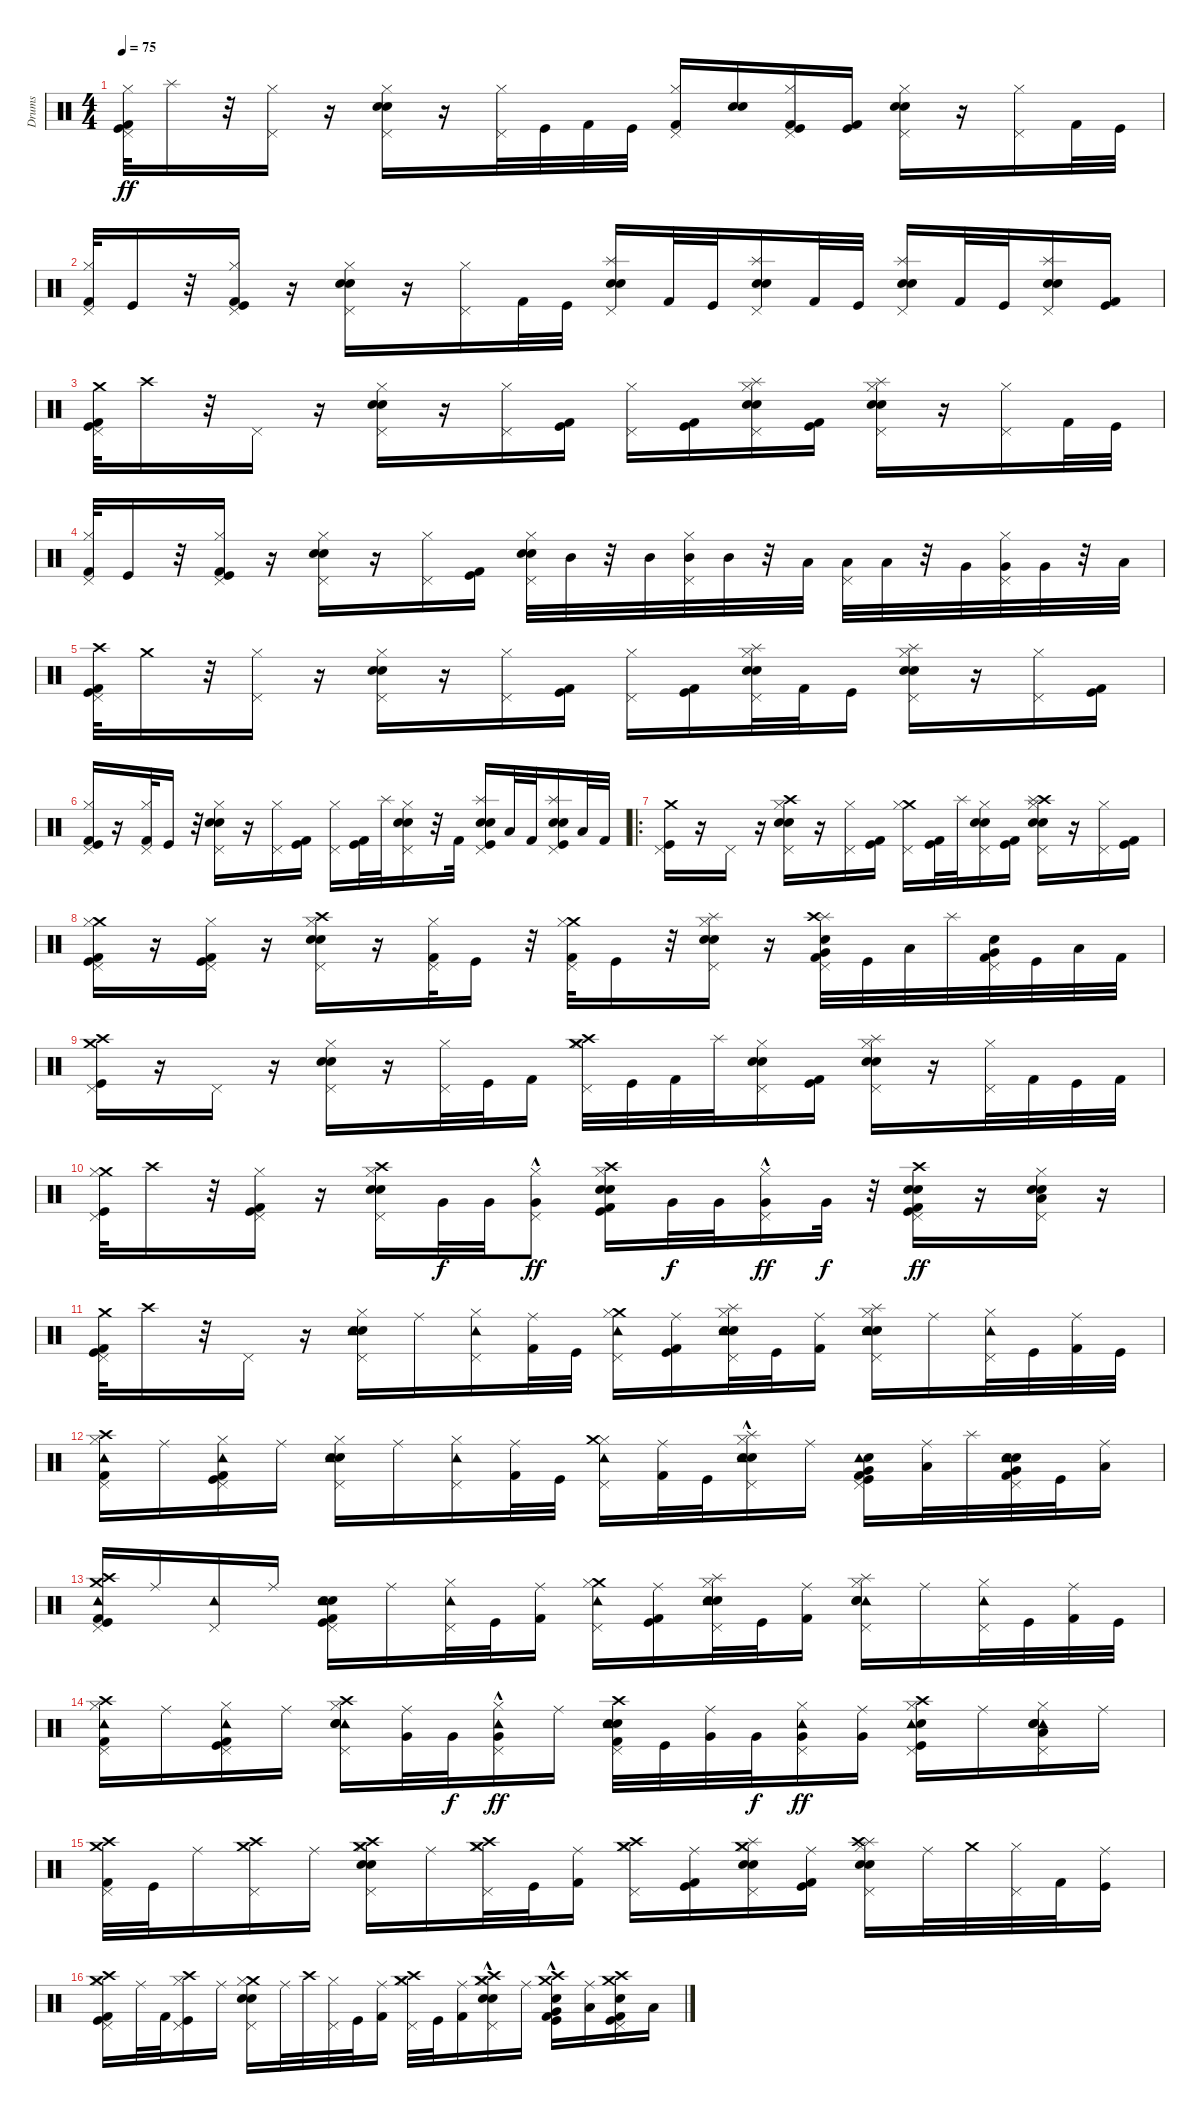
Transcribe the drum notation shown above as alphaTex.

\track ("Drums" "Drums") {instrument percussion}
\staff {score}
\articulation defaults
\ts (4 4)
\tempo 75
\clef neutral
\ks c
("Kick (hit)" "Kick (hit) 2" "Hi-Hat (closed)" "Pedal Hi-Hat (hit)").32{dy ff} "Splash (hit)".16 r.32 ("Pedal Hi-Hat (hit)" "Hi-Hat (closed)").16 r.16 ("Electric Snare (hit)" "Hi-Hat (closed)" "Snare (hit) 2" "Pedal Hi-Hat (hit)").16 r.16 ("Pedal Hi-Hat (hit)" "Hi-Hat (closed)").32 "Kick (hit)".32 "Kick (hit) 2".32 "Kick (hit)".32 ("Pedal Hi-Hat (hit)" "Hi-Hat (closed)" "Kick (hit) 2").16 ("Snare (hit) 2" "Electric Snare (hit)").16 ("Kick (hit) 2" "Hi-Hat (closed)" "Kick (hit)" "Pedal Hi-Hat (hit)").16 ("Kick (hit) 2" "Kick (hit)").16 ("Pedal Hi-Hat (hit)" "Electric Snare (hit)" "Hi-Hat (closed)" "Snare (hit) 2").16 r.16 ("Pedal Hi-Hat (hit)" "Hi-Hat (closed)").16 "Kick (hit) 2".32 "Kick (hit)".32 |
("Kick (hit) 2" "Hi-Hat (closed)" "Pedal Hi-Hat (hit)").32 "Kick (hit)".16 r.32 ("Hi-Hat (closed)" "Kick (hit)" "Pedal Hi-Hat (hit)" "Kick (hit) 2").16 r.16 ("Snare (hit) 2" "Pedal Hi-Hat (hit)" "Hi-Hat (closed)" "Electric Snare (hit)").16 r.16 ("Pedal Hi-Hat (hit)" "Hi-Hat (closed)").16 "Kick (hit) 2".32 "Kick (hit)".32 ("Pedal Hi-Hat (hit)" "Splash (hit)" "Electric Snare (hit)" "Snare (hit) 2").16 "Kick (hit) 2".32 "Kick (hit)".32 ("Snare (hit) 2" "Splash (hit)" "Pedal Hi-Hat (hit)" "Electric Snare (hit)").16 "Kick (hit) 2".32 "Kick (hit)".32 ("Splash (hit)" "Pedal Hi-Hat (hit)" "Electric Snare (hit)" "Snare (hit) 2").16 "Kick (hit) 2".32 "Kick (hit)".32 ("Splash (hit)" "Pedal Hi-Hat (hit)" "Electric Snare (hit)" "Snare (hit) 2").16 ("Kick (hit)" "Kick (hit) 2").16 |
("Pedal Hi-Hat (hit)" "Kick (hit)" "Kick (hit) 2" "Crash medium (hit)").32 "Crash high (hit)".16 r.32 "Pedal Hi-Hat (hit)".16 r.16 ("Hi-Hat (closed)" "Snare (hit) 2" "Pedal Hi-Hat (hit)" "Electric Snare (hit)").16 r.16 ("Hi-Hat (closed)" "Pedal Hi-Hat (hit)").16 ("Kick (hit) 2" "Kick (hit)").16 ("Hi-Hat (closed)" "Pedal Hi-Hat (hit)").16 ("Kick (hit)" "Kick (hit) 2").16 ("Hi-Hat (closed)" "Pedal Hi-Hat (hit)" "Electric Snare (hit)" "Snare (hit) 2" "Splash (hit)").16 ("Kick (hit)" "Kick (hit) 2").16 ("Electric Snare (hit)" "Snare (hit) 2" "Splash (hit)" "Pedal Hi-Hat (hit)" "Hi-Hat (closed)").16 r.16 ("Hi-Hat (closed)" "Pedal Hi-Hat (hit)").16 "Kick (hit) 2".32 "Kick (hit)".32 |
("Hi-Hat (closed)" "Pedal Hi-Hat (hit)" "Kick (hit) 2").32 "Kick (hit)".16 r.32 ("Kick (hit)" "Hi-Hat (closed)" "Pedal Hi-Hat (hit)" "Kick (hit) 2").16 r.16 ("Electric Snare (hit)" "Pedal Hi-Hat (hit)" "Snare (hit) 2" "Hi-Hat (closed)").16 r.16 ("Hi-Hat (closed)" "Pedal Hi-Hat (hit)").16 ("Kick (hit) 2" "Kick (hit)").16 ("Pedal Hi-Hat (hit)" "Snare (hit) 2" "Hi-Hat (closed)" "Electric Snare (hit)").32 "Mid Tom (hit)".32 r.32 "Mid Tom (hit)".32 ("Hi-Hat (closed)" "Mid Tom (hit)" "Pedal Hi-Hat (hit)").32 "Mid Tom (hit)".32 r.32 "Low Tom (hit)".32 ("Pedal Hi-Hat (hit)" "Low Tom (hit)").32 "Low Tom (hit)".32 r.32 "Very Low Tom (hit)".32 ("Very Low Tom (hit)" "Pedal Hi-Hat (hit)" "Hi-Hat (closed)").32 "Very Low Tom (hit)".32 r.32 "Low Floor Tom (hit)".32 |
("Kick (hit)" "Pedal Hi-Hat (hit)" "Kick (hit) 2" "Crash high (hit)").32 "Crash medium (hit)".16 r.32 ("Hi-Hat (closed)" "Pedal Hi-Hat (hit)").16 r.16 ("Pedal Hi-Hat (hit)" "Hi-Hat (closed)" "Snare (hit) 2" "Electric Snare (hit)").16 r.16 ("Hi-Hat (closed)" "Pedal Hi-Hat (hit)").16 ("Kick (hit)" "Kick (hit) 2").16 ("Hi-Hat (closed)" "Pedal Hi-Hat (hit)").16 ("Kick (hit) 2" "Kick (hit)").16 ("Pedal Hi-Hat (hit)" "Splash (hit)" "Electric Snare (hit)" "Snare (hit) 2" "Hi-Hat (closed)").32 "Kick (hit) 2".32 "Kick (hit)".16 ("Electric Snare (hit)" "Snare (hit) 2" "Hi-Hat (closed)" "Pedal Hi-Hat (hit)" "Splash (hit)").16 r.16 ("Pedal Hi-Hat (hit)" "Hi-Hat (closed)").16 ("Kick (hit)" "Kick (hit) 2").16 |
("Kick (hit) 2" "Hi-Hat (closed)" "Pedal Hi-Hat (hit)" "Kick (hit)").16 r.16 ("Hi-Hat (closed)" "Pedal Hi-Hat (hit)" "Kick (hit) 2").32 "Kick (hit)".16 r.32 ("Hi-Hat (closed)" "Pedal Hi-Hat (hit)" "Electric Snare (hit)" "Snare (hit) 2").16 r.16 ("Hi-Hat (closed)" "Pedal Hi-Hat (hit)").16 ("Kick (hit)" "Kick (hit) 2").16 ("Hi-Hat (closed)" "Pedal Hi-Hat (hit)").16 ("Kick (hit) 2" "Kick (hit)").32 "Splash (hit)".32 ("Snare (hit) 2" "Pedal Hi-Hat (hit)" "Electric Snare (hit)" "Hi-Hat (closed)").16 r.32 "Kick (hit) 2".32 ("Kick (hit)" "Pedal Hi-Hat (hit)" "Electric Snare (hit)" "Splash (hit)" "Snare (hit) 2").16 "Low Tom (hit)".32 "Kick (hit) 2".32 ("Pedal Hi-Hat (hit)" "Kick (hit)" "Snare (hit) 2" "Splash (hit)" "Electric Snare (hit)").16 "Low Tom (hit)".32 "Kick (hit) 2".32 |
\ro
("Kick (hit)" "Pedal Hi-Hat (hit)" "Crash medium (hit)").16 r.16 "Pedal Hi-Hat (hit)".16 r.16 ("Snare (hit) 2" "Electric Snare (hit)" "Crash high (hit)" "Pedal Hi-Hat (hit)" "Hi-Hat (closed)").16 r.16 ("Pedal Hi-Hat (hit)" "Hi-Hat (closed)").16 ("Kick (hit)" "Kick (hit) 2").16 ("Crash medium (hit)" "Pedal Hi-Hat (hit)" "Hi-Hat (closed)").16 ("Kick (hit)" "Kick (hit) 2").32 "Splash (hit)".32 ("Electric Snare (hit)" "Snare (hit) 2" "Hi-Hat (closed)" "Pedal Hi-Hat (hit)").16 ("Kick (hit) 2" "Kick (hit)").16 ("Crash high (hit)" "Splash (hit)" "Pedal Hi-Hat (hit)" "Electric Snare (hit)" "Hi-Hat (closed)" "Snare (hit) 2").16 r.16 ("Hi-Hat (closed)" "Pedal Hi-Hat (hit)").16 ("Kick (hit) 2" "Kick (hit)").16 |
("Kick (hit) 2" "Pedal Hi-Hat (hit)" "Kick (hit)" "Crash medium (hit)" "Hi-Hat (closed)").16 r.16 ("Pedal Hi-Hat (hit)" "Hi-Hat (closed)" "Kick (hit)" "Kick (hit) 2").16 r.16 ("Electric Snare (hit)" "Hi-Hat (closed)" "Snare (hit) 2" "Crash high (hit)" "Pedal Hi-Hat (hit)").16 r.16 ("Pedal Hi-Hat (hit)" "Hi-Hat (closed)" "Kick (hit) 2").32 "Kick (hit)".16 r.32 ("Crash medium (hit)" "Hi-Hat (closed)" "Pedal Hi-Hat (hit)" "Kick (hit) 2").32 "Kick (hit)".16 r.32 ("Pedal Hi-Hat (hit)" "Electric Snare (hit)" "Splash (hit)" "Hi-Hat (closed)" "Snare (hit) 2").16 r.16 ("Kick (hit) 2" "Electric Snare (hit)" "Splash (hit)" "Very Low Tom (hit)" "Crash high (hit)" "Pedal Hi-Hat (hit)").32 "Kick (hit)".32 "Low Floor Tom (hit)".32 "Splash (hit)".32 ("Very Low Tom (hit)" "Kick (hit) 2" "Pedal Hi-Hat (hit)" "Electric Snare (hit)").32 "Kick (hit)".32 "Low Floor Tom (hit)".32 "Kick (hit) 2".32 |
("Kick (hit)" "Crash high (hit)" "Crash medium (hit)" "Pedal Hi-Hat (hit)").16 r.16 "Pedal Hi-Hat (hit)".16 r.16 ("Electric Snare (hit)" "Pedal Hi-Hat (hit)" "Hi-Hat (closed)" "Snare (hit) 2").16 r.16 ("Hi-Hat (closed)" "Pedal Hi-Hat (hit)").32 "Kick (hit)".32 "Kick (hit) 2".16 ("Pedal Hi-Hat (hit)" "Crash medium (hit)" "Crash high (hit)" "Hi-Hat (closed)").32 "Kick (hit)".32 "Kick (hit) 2".32 "Splash (hit)".32 ("Electric Snare (hit)" "Pedal Hi-Hat (hit)" "Hi-Hat (closed)" "Snare (hit) 2").16 ("Kick (hit)" "Kick (hit) 2").16 ("Electric Snare (hit)" "Splash (hit)" "Pedal Hi-Hat (hit)" "Hi-Hat (closed)" "Snare (hit) 2").16 r.16 ("Hi-Hat (closed)" "Pedal Hi-Hat (hit)").32 "Kick (hit) 2".32 "Kick (hit)".32 "Kick (hit) 2".32 |
("Pedal Hi-Hat (hit)" "Crash medium (hit)" "Hi-Hat (closed)" "Kick (hit)").32 "Crash high (hit)".16 r.32 ("Kick (hit) 2" "Pedal Hi-Hat (hit)" "Kick (hit)" "Hi-Hat (closed)").16 r.16 ("Electric Snare (hit)" "Crash high (hit)" "Hi-Hat (closed)" "Snare (hit) 2" "Pedal Hi-Hat (hit)").16 "Very Low Tom (hit)".32{dy f} "Very Low Tom (hit)".32 ("Pedal Hi-Hat (hit)"{hac} "Very Low Tom (hit)" "Hi-Hat (closed)").8{dy ff} ("Crash high (hit)" "Snare (hit) 2" "Kick (hit) 2" "Hi-Hat (closed)" "Electric Snare (hit)" "Kick (hit)").16 "Very Low Tom (hit)".32{dy f} "Very Low Tom (hit)".32 ("Very Low Tom (hit)" "Pedal Hi-Hat (hit)" "Hi-Hat (closed)"{hac}).16{dy ff} "Very Low Tom (hit)".32{dy f} r.32 ("Snare (hit) 2" "Kick (hit)" "Kick (hit) 2" "Crash high (hit)" "Pedal Hi-Hat (hit)" "Electric Snare (hit)").16{dy ff} r.16 ("Electric Snare (hit)" "Low Floor Tom (hit)" "Hi-Hat (closed)" "Snare (hit) 2" "Pedal Hi-Hat (hit)").16 r.16 |
("Kick (hit)" "Kick (hit) 2" "Crash medium (hit)" "Pedal Hi-Hat (hit)").32 "Crash high (hit)".16 r.32 "Pedal Hi-Hat (hit)".16 r.16 ("Hi-Hat (closed)" "Snare (hit) 2" "Tambourine (hit)" "Electric Snare (hit)" "Pedal Hi-Hat (hit)").16 "Ride (middle)".16 ("Tambourine (hit)" "Hi-Hat (closed)" "Pedal Hi-Hat (hit)").16 ("Ride (middle)" "Kick (hit) 2").32 "Kick (hit)".32 ("Crash medium (hit)" "Tambourine (hit)" "Pedal Hi-Hat (hit)" "Hi-Hat (closed)").16 ("Kick (hit)" "Kick (hit) 2" "Ride (middle)").16 ("Electric Snare (hit)" "Hi-Hat (closed)" "Pedal Hi-Hat (hit)" "Tambourine (hit)" "Splash (hit)" "Snare (hit) 2").32 "Kick (hit)".32 ("Ride (middle)" "Kick (hit) 2").16 ("Snare (hit) 2" "Splash (hit)" "Pedal Hi-Hat (hit)" "Hi-Hat (closed)" "Electric Snare (hit)" "Tambourine (hit)").16 "Ride (middle)".16 ("Hi-Hat (closed)" "Pedal Hi-Hat (hit)" "Tambourine (hit)").32 "Kick (hit)".32 ("Ride (middle)" "Kick (hit) 2").32 "Kick (hit)".32 |
("Tambourine (hit)" "Crash high (hit)" "Pedal Hi-Hat (hit)" "Hi-Hat (closed)" "Kick (hit) 2").16 "Ride (middle)".16 ("Kick (hit) 2" "Tambourine (hit)" "Pedal Hi-Hat (hit)" "Kick (hit)" "Hi-Hat (closed)").16 "Ride (middle)".16 ("Hi-Hat (closed)" "Pedal Hi-Hat (hit)" "Electric Snare (hit)" "Tambourine (hit)" "Snare (hit) 2").16 "Ride (middle)".16 ("Hi-Hat (closed)" "Tambourine (hit)" "Pedal Hi-Hat (hit)").16 ("Kick (hit) 2" "Ride (middle)").32 "Kick (hit)".32 ("Pedal Hi-Hat (hit)" "Hi-Hat (closed)" "Tambourine (hit)" "Crash medium (hit)").16 ("Ride (middle)" "Kick (hit) 2").32 "Kick (hit)".32 ("Pedal Hi-Hat (hit)" "Electric Snare (hit)" "Snare (hit) 2"{hac} "Splash (hit)"{hac} "Tambourine (hit)" "Hi-Hat (closed)").16 "Ride (middle)".16 ("Electric Snare (hit)" "Very Low Tom (hit)" "Pedal Hi-Hat (hit)" "Kick (hit) 2" "Tambourine (hit)" "Kick (hit)").16 ("Ride (middle)" "Low Floor Tom (hit)").32 "Splash (hit)".32 ("Electric Snare (hit)" "Snare (hit) 2" "Kick (hit) 2" "Tambourine (hit)" "Pedal Hi-Hat (hit)" "Very Low Tom (hit)").32 "Kick (hit)".32 ("Ride (middle)" "Low Floor Tom (hit)").16 |
("Kick (hit) 2" "Pedal Hi-Hat (hit)" "Crash medium (hit)" "Crash high (hit)" "Tambourine (hit)" "Kick (hit)").16 "Ride (middle)".16 ("Pedal Hi-Hat (hit)" "Tambourine (hit)").16 "Ride (middle)".16 ("Kick (hit) 2" "Pedal Hi-Hat (hit)" "Kick (hit)" "Electric Snare (hit)" "Tambourine (hit)" "Snare (hit) 2").16 "Ride (middle)".16 ("Hi-Hat (closed)" "Tambourine (hit)" "Pedal Hi-Hat (hit)").32 "Kick (hit)".32 ("Kick (hit) 2" "Ride (middle)").16 ("Crash medium (hit)" "Hi-Hat (closed)" "Pedal Hi-Hat (hit)" "Tambourine (hit)").16 ("Kick (hit) 2" "Kick (hit)" "Ride (middle)").16 ("Snare (hit) 2" "Hi-Hat (closed)" "Pedal Hi-Hat (hit)" "Tambourine (hit)" "Splash (hit)" "Electric Snare (hit)").32 "Kick (hit)".32 ("Ride (middle)" "Kick (hit) 2").16 ("Tambourine (hit)" "Pedal Hi-Hat (hit)" "Hi-Hat (closed)" "Electric Snare (hit)" "Splash (hit)" "Snare (hit) 2").16 "Ride (middle)".16 ("Hi-Hat (closed)" "Tambourine (hit)" "Pedal Hi-Hat (hit)").32 "Kick (hit)".32 ("Kick (hit) 2" "Ride (middle)").32 "Kick (hit)".32 |
("Tambourine (hit)" "Kick (hit) 2" "Crash high (hit)" "Pedal Hi-Hat (hit)" "Hi-Hat (closed)").16 "Ride (middle)".16 ("Hi-Hat (closed)" "Kick (hit) 2" "Tambourine (hit)" "Kick (hit)" "Pedal Hi-Hat (hit)").16 "Ride (middle)".16 ("Hi-Hat (closed)" "Pedal Hi-Hat (hit)" "Tambourine (hit)" "Snare (hit) 2" "Crash high (hit)" "Electric Snare (hit)").16 ("Very Low Tom (hit)" "Ride (middle)").32 "Very Low Tom (hit)".32{dy f} ("Hi-Hat (closed)"{hac} "Tambourine (hit)" "Pedal Hi-Hat (hit)" "Very Low Tom (hit)").16{dy ff} "Ride (middle)".16 ("Snare (hit) 2" "Electric Snare (hit)" "Kick (hit) 2" "Tambourine (hit)" "Pedal Hi-Hat (hit)" "Crash high (hit)").32 "Kick (hit)".32 ("Ride (middle)" "Very Low Tom (hit)").32 "Very Low Tom (hit)".32{dy f} ("Tambourine (hit)" "Pedal Hi-Hat (hit)" "Very Low Tom (hit)" "Hi-Hat (closed)").16{dy ff} ("Very Low Tom (hit)" "Ride (middle)").16 ("Hi-Hat (closed)" "Pedal Hi-Hat (hit)" "Kick (hit)" "Crash high (hit)" "Electric Snare (hit)" "Tambourine (hit)").16 "Ride (middle)".16 ("Tambourine (hit)" "Low Floor Tom (hit)" "Electric Snare (hit)" "Pedal Hi-Hat (hit)" "Snare (hit) 2" "Hi-Hat (closed)").16 "Ride (middle)".16 |
("Crash high (hit)" "Pedal Hi-Hat (hit)" "Kick (hit) 2" "Crash medium (hit)").32 "Kick (hit)".32 "Ride (middle)".16 ("Pedal Hi-Hat (hit)" "Crash medium (hit)" "Crash high (hit)").16 "Ride (middle)".16 ("Hi-Hat (closed)" "Pedal Hi-Hat (hit)" "Crash high (hit)" "Snare (hit) 2" "Electric Snare (hit)" "Crash medium (hit)").16 "Ride (middle)".16 ("Pedal Hi-Hat (hit)" "Crash high (hit)" "Crash medium (hit)" "Hi-Hat (closed)").32 "Kick (hit)".32 ("Kick (hit) 2" "Ride (middle)").16 ("Hi-Hat (closed)" "Crash medium (hit)" "Crash high (hit)" "Pedal Hi-Hat (hit)").16 ("Kick (hit) 2" "Kick (hit)" "Ride (middle)").16 ("Pedal Hi-Hat (hit)" "Splash (hit)" "Hi-Hat (closed)" "Snare (hit) 2" "Electric Snare (hit)" "Crash medium (hit)").16 ("Ride (middle)" "Kick (hit)" "Kick (hit) 2").16 ("Pedal Hi-Hat (hit)" "Snare (hit) 2" "Electric Snare (hit)" "Splash (hit)" "Hi-Hat (closed)" "Crash high (hit)").16 "Ride (middle)".32 "Crash medium (hit)".32 ("Hi-Hat (closed)" "Pedal Hi-Hat (hit)").32 "Kick (hit) 2".32 ("Ride (middle)" "Kick (hit)").16 |
("Hi-Hat (closed)" "Pedal Hi-Hat (hit)" "Crash medium (hit)" "Kick (hit)" "Kick (hit) 2" "Crash high (hit)").16 "Ride (middle)".32 "Kick (hit) 2".32 ("Kick (hit)" "Pedal Hi-Hat (hit)" "Hi-Hat (closed)" "Crash high (hit)").16 "Ride (middle)".16 ("Snare (hit) 2" "Pedal Hi-Hat (hit)" "Electric Snare (hit)" "Crash medium (hit)" "Hi-Hat (closed)").16 "Ride (middle)".32 "Crash high (hit)".32 ("Hi-Hat (closed)" "Pedal Hi-Hat (hit)").32 "Kick (hit)".32 ("Ride (middle)" "Kick (hit) 2").16 ("Crash medium (hit)" "Pedal Hi-Hat (hit)" "Hi-Hat (closed)" "Crash high (hit)").32 "Kick (hit)".32 ("Ride (middle)" "Kick (hit) 2").16 ("Hi-Hat (closed)" "Crash medium (hit)" "Snare (hit) 2" "Crash high (hit)" "Electric Snare (hit)" "Pedal Hi-Hat (hit)"{hac}).16 "Ride (middle)".16 ("Very Low Tom (hit)"{hac} "Kick (hit) 2" "Crash medium (hit)" "Electric Snare (hit)" "Crash high (hit)" "Kick (hit)").16 ("Low Floor Tom (hit)" "Ride (middle)").16 ("Kick (hit) 2" "Kick (hit)" "Pedal Hi-Hat (hit)" "Crash high (hit)" "Electric Snare (hit)" "Crash medium (hit)").16 "Low Floor Tom (hit)".16
